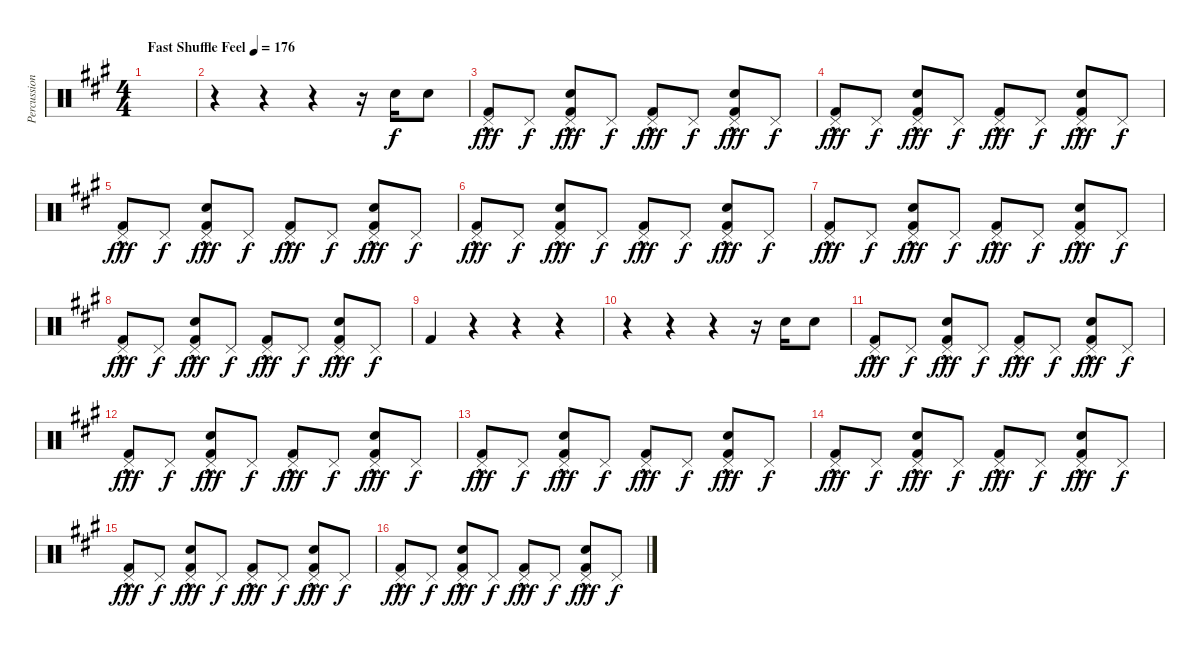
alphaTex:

\track ("Percussion" "Percussion") {instrument percussion}
\staff {score}
\articulation defaults
\ts (4 4)
\tempo (176 "Fast Shuffle Feel")
\clef neutral
\ks a
|
r.4 r.4 r.4 r.16 "Snare (hit) 2".16 "Snare (hit) 2".8 |
("Pedal Hi-Hat (hit)"{hac} "Kick (hit) 2").8{dy fff} "Pedal Hi-Hat (hit)".8{dy f} ("Pedal Hi-Hat (hit)"{hac} "Snare (hit) 2" "Kick (hit) 2").8{dy fff} "Pedal Hi-Hat (hit)".8{dy f} ("Pedal Hi-Hat (hit)"{hac} "Kick (hit) 2").8{dy fff} "Pedal Hi-Hat (hit)".8{dy f} ("Pedal Hi-Hat (hit)"{hac} "Snare (hit) 2" "Kick (hit) 2").8{dy fff} "Pedal Hi-Hat (hit)".8{dy f} |
("Pedal Hi-Hat (hit)"{hac} "Kick (hit) 2").8{dy fff} "Pedal Hi-Hat (hit)".8{dy f} ("Pedal Hi-Hat (hit)"{hac} "Snare (hit) 2" "Kick (hit) 2").8{dy fff} "Pedal Hi-Hat (hit)".8{dy f} ("Pedal Hi-Hat (hit)"{hac} "Kick (hit) 2").8{dy fff} "Pedal Hi-Hat (hit)".8{dy f} ("Pedal Hi-Hat (hit)"{hac} "Snare (hit) 2" "Kick (hit) 2").8{dy fff} "Pedal Hi-Hat (hit)".8{dy f} |
("Pedal Hi-Hat (hit)"{hac} "Kick (hit) 2").8{dy fff} "Pedal Hi-Hat (hit)".8{dy f} ("Pedal Hi-Hat (hit)"{hac} "Snare (hit) 2" "Kick (hit) 2").8{dy fff} "Pedal Hi-Hat (hit)".8{dy f} ("Pedal Hi-Hat (hit)"{hac} "Kick (hit) 2").8{dy fff} "Pedal Hi-Hat (hit)".8{dy f} ("Pedal Hi-Hat (hit)"{hac} "Snare (hit) 2" "Kick (hit) 2").8{dy fff} "Pedal Hi-Hat (hit)".8{dy f} |
("Pedal Hi-Hat (hit)"{hac} "Kick (hit) 2").8{dy fff} "Pedal Hi-Hat (hit)".8{dy f} ("Pedal Hi-Hat (hit)"{hac} "Snare (hit) 2" "Kick (hit) 2").8{dy fff} "Pedal Hi-Hat (hit)".8{dy f} ("Pedal Hi-Hat (hit)"{hac} "Kick (hit) 2").8{dy fff} "Pedal Hi-Hat (hit)".8{dy f} ("Pedal Hi-Hat (hit)"{hac} "Snare (hit) 2" "Kick (hit) 2").8{dy fff} "Pedal Hi-Hat (hit)".8{dy f} |
("Pedal Hi-Hat (hit)"{hac} "Kick (hit) 2").8{dy fff} "Pedal Hi-Hat (hit)".8{dy f} ("Pedal Hi-Hat (hit)"{hac} "Snare (hit) 2" "Kick (hit) 2").8{dy fff} "Pedal Hi-Hat (hit)".8{dy f} ("Pedal Hi-Hat (hit)"{hac} "Kick (hit) 2").8{dy fff} "Pedal Hi-Hat (hit)".8{dy f} ("Pedal Hi-Hat (hit)"{hac} "Snare (hit) 2" "Kick (hit) 2").8{dy fff} "Pedal Hi-Hat (hit)".8{dy f} |
("Pedal Hi-Hat (hit)"{hac} "Kick (hit) 2").8{dy fff} "Pedal Hi-Hat (hit)".8{dy f} ("Pedal Hi-Hat (hit)"{hac} "Snare (hit) 2" "Kick (hit) 2").8{dy fff} "Pedal Hi-Hat (hit)".8{dy f} ("Pedal Hi-Hat (hit)"{hac} "Kick (hit) 2").8{dy fff} "Pedal Hi-Hat (hit)".8{dy f} ("Pedal Hi-Hat (hit)"{hac} "Snare (hit) 2" "Kick (hit) 2").8{dy fff} "Pedal Hi-Hat (hit)".8{dy f} |
"Kick (hit) 2".4 r.4 r.4 r.4 |
r.4 r.4 r.4 r.16 "Snare (hit) 2".16 "Snare (hit) 2".8 |
("Pedal Hi-Hat (hit)"{hac} "Kick (hit) 2").8{dy fff} "Pedal Hi-Hat (hit)".8{dy f} ("Pedal Hi-Hat (hit)"{hac} "Snare (hit) 2" "Kick (hit) 2").8{dy fff} "Pedal Hi-Hat (hit)".8{dy f} ("Pedal Hi-Hat (hit)"{hac} "Kick (hit) 2").8{dy fff} "Pedal Hi-Hat (hit)".8{dy f} ("Pedal Hi-Hat (hit)"{hac} "Snare (hit) 2" "Kick (hit) 2").8{dy fff} "Pedal Hi-Hat (hit)".8{dy f} |
("Pedal Hi-Hat (hit)"{hac} "Kick (hit) 2").8{dy fff} "Pedal Hi-Hat (hit)".8{dy f} ("Pedal Hi-Hat (hit)"{hac} "Snare (hit) 2" "Kick (hit) 2").8{dy fff} "Pedal Hi-Hat (hit)".8{dy f} ("Pedal Hi-Hat (hit)"{hac} "Kick (hit) 2").8{dy fff} "Pedal Hi-Hat (hit)".8{dy f} ("Pedal Hi-Hat (hit)"{hac} "Snare (hit) 2" "Kick (hit) 2").8{dy fff} "Pedal Hi-Hat (hit)".8{dy f} |
("Pedal Hi-Hat (hit)"{hac} "Kick (hit) 2").8{dy fff} "Pedal Hi-Hat (hit)".8{dy f} ("Pedal Hi-Hat (hit)"{hac} "Snare (hit) 2" "Kick (hit) 2").8{dy fff} "Pedal Hi-Hat (hit)".8{dy f} ("Pedal Hi-Hat (hit)"{hac} "Kick (hit) 2").8{dy fff} "Pedal Hi-Hat (hit)".8{dy f} ("Pedal Hi-Hat (hit)"{hac} "Snare (hit) 2" "Kick (hit) 2").8{dy fff} "Pedal Hi-Hat (hit)".8{dy f} |
("Pedal Hi-Hat (hit)"{hac} "Kick (hit) 2").8{dy fff} "Pedal Hi-Hat (hit)".8{dy f} ("Pedal Hi-Hat (hit)"{hac} "Snare (hit) 2" "Kick (hit) 2").8{dy fff} "Pedal Hi-Hat (hit)".8{dy f} ("Pedal Hi-Hat (hit)"{hac} "Kick (hit) 2").8{dy fff} "Pedal Hi-Hat (hit)".8{dy f} ("Pedal Hi-Hat (hit)"{hac} "Snare (hit) 2" "Kick (hit) 2").8{dy fff} "Pedal Hi-Hat (hit)".8{dy f} |
("Pedal Hi-Hat (hit)"{hac} "Kick (hit) 2").8{dy fff} "Pedal Hi-Hat (hit)".8{dy f} ("Pedal Hi-Hat (hit)"{hac} "Snare (hit) 2" "Kick (hit) 2").8{dy fff} "Pedal Hi-Hat (hit)".8{dy f} ("Pedal Hi-Hat (hit)"{hac} "Kick (hit) 2").8{dy fff} "Pedal Hi-Hat (hit)".8{dy f} ("Pedal Hi-Hat (hit)"{hac} "Snare (hit) 2" "Kick (hit) 2").8{dy fff} "Pedal Hi-Hat (hit)".8{dy f} |
("Pedal Hi-Hat (hit)"{hac} "Kick (hit) 2").8{dy fff} "Pedal Hi-Hat (hit)".8{dy f} ("Pedal Hi-Hat (hit)"{hac} "Snare (hit) 2" "Kick (hit) 2").8{dy fff} "Pedal Hi-Hat (hit)".8{dy f} ("Pedal Hi-Hat (hit)"{hac} "Kick (hit) 2").8{dy fff} "Pedal Hi-Hat (hit)".8{dy f} ("Pedal Hi-Hat (hit)"{hac} "Snare (hit) 2" "Kick (hit) 2").8{dy fff} "Pedal Hi-Hat (hit)".8{dy f}
